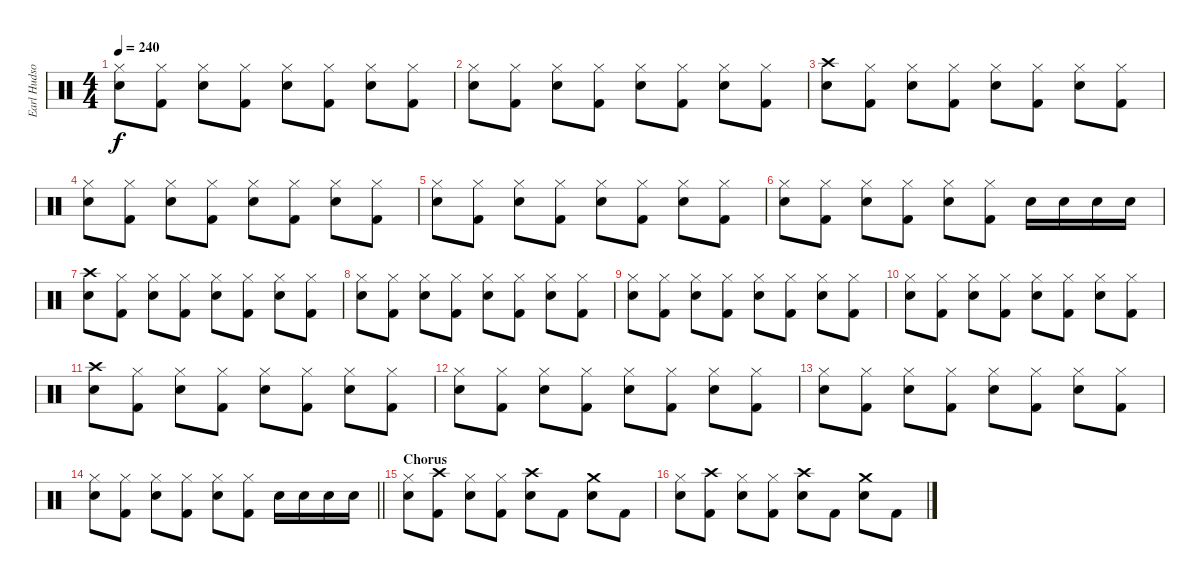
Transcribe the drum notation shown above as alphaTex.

\track ("Earl Hudson" "Earl Hudso") {instrument percussion}
\staff {score}
\articulation defaults
\ts (4 4)
\tempo 240
\clef neutral
\ks c
("Hi-Hat (closed)" "Snare (hit) 2").8{dy f} ("Hi-Hat (closed)" "Kick (hit) 2").8 ("Hi-Hat (closed)" "Snare (hit) 2").8 ("Hi-Hat (closed)" "Kick (hit) 2").8 ("Hi-Hat (closed)" "Snare (hit) 2").8 ("Hi-Hat (closed)" "Kick (hit) 2").8 ("Hi-Hat (closed)" "Snare (hit) 2").8 ("Hi-Hat (closed)" "Kick (hit) 2").8 |
("Hi-Hat (closed)" "Snare (hit) 2").8 ("Hi-Hat (closed)" "Kick (hit) 2").8 ("Hi-Hat (closed)" "Snare (hit) 2").8 ("Hi-Hat (closed)" "Kick (hit) 2").8 ("Hi-Hat (closed)" "Snare (hit) 2").8 ("Hi-Hat (closed)" "Kick (hit) 2").8 ("Hi-Hat (closed)" "Snare (hit) 2").8 ("Hi-Hat (closed)" "Kick (hit) 2").8 |
("Crash high (hit)" "Snare (hit) 2").8 ("Hi-Hat (closed)" "Kick (hit) 2").8 ("Hi-Hat (closed)" "Snare (hit) 2").8 ("Hi-Hat (closed)" "Kick (hit) 2").8 ("Hi-Hat (closed)" "Snare (hit) 2").8 ("Hi-Hat (closed)" "Kick (hit) 2").8 ("Hi-Hat (closed)" "Snare (hit) 2").8 ("Hi-Hat (closed)" "Kick (hit) 2").8 |
("Hi-Hat (closed)" "Snare (hit) 2").8 ("Hi-Hat (closed)" "Kick (hit) 2").8 ("Hi-Hat (closed)" "Snare (hit) 2").8 ("Hi-Hat (closed)" "Kick (hit) 2").8 ("Hi-Hat (closed)" "Snare (hit) 2").8 ("Hi-Hat (closed)" "Kick (hit) 2").8 ("Hi-Hat (closed)" "Snare (hit) 2").8 ("Hi-Hat (closed)" "Kick (hit) 2").8 |
("Hi-Hat (closed)" "Snare (hit) 2").8 ("Hi-Hat (closed)" "Kick (hit) 2").8 ("Hi-Hat (closed)" "Snare (hit) 2").8 ("Hi-Hat (closed)" "Kick (hit) 2").8 ("Hi-Hat (closed)" "Snare (hit) 2").8 ("Hi-Hat (closed)" "Kick (hit) 2").8 ("Hi-Hat (closed)" "Snare (hit) 2").8 ("Hi-Hat (closed)" "Kick (hit) 2").8 |
("Hi-Hat (closed)" "Snare (hit) 2").8 ("Hi-Hat (closed)" "Kick (hit) 2").8 ("Hi-Hat (closed)" "Snare (hit) 2").8 ("Hi-Hat (closed)" "Kick (hit) 2").8 ("Hi-Hat (closed)" "Snare (hit) 2").8 ("Hi-Hat (closed)" "Kick (hit) 2").8 "Snare (hit) 2".16 "Snare (hit) 2".16 "Snare (hit) 2".16 "Snare (hit) 2".16 |
("Crash high (hit)" "Snare (hit) 2").8 ("Hi-Hat (closed)" "Kick (hit) 2").8 ("Hi-Hat (closed)" "Snare (hit) 2").8 ("Hi-Hat (closed)" "Kick (hit) 2").8 ("Hi-Hat (closed)" "Snare (hit) 2").8 ("Hi-Hat (closed)" "Kick (hit) 2").8 ("Hi-Hat (closed)" "Snare (hit) 2").8 ("Hi-Hat (closed)" "Kick (hit) 2").8 |
("Hi-Hat (closed)" "Snare (hit) 2").8 ("Hi-Hat (closed)" "Kick (hit) 2").8 ("Hi-Hat (closed)" "Snare (hit) 2").8 ("Hi-Hat (closed)" "Kick (hit) 2").8 ("Hi-Hat (closed)" "Snare (hit) 2").8 ("Hi-Hat (closed)" "Kick (hit) 2").8 ("Hi-Hat (closed)" "Snare (hit) 2").8 ("Hi-Hat (closed)" "Kick (hit) 2").8 |
("Hi-Hat (closed)" "Snare (hit) 2").8 ("Hi-Hat (closed)" "Kick (hit) 2").8 ("Hi-Hat (closed)" "Snare (hit) 2").8 ("Hi-Hat (closed)" "Kick (hit) 2").8 ("Hi-Hat (closed)" "Snare (hit) 2").8 ("Hi-Hat (closed)" "Kick (hit) 2").8 ("Hi-Hat (closed)" "Snare (hit) 2").8 ("Hi-Hat (closed)" "Kick (hit) 2").8 |
("Hi-Hat (closed)" "Snare (hit) 2").8 ("Hi-Hat (closed)" "Kick (hit) 2").8 ("Hi-Hat (closed)" "Snare (hit) 2").8 ("Hi-Hat (closed)" "Kick (hit) 2").8 ("Hi-Hat (closed)" "Snare (hit) 2").8 ("Hi-Hat (closed)" "Kick (hit) 2").8 ("Hi-Hat (closed)" "Snare (hit) 2").8 ("Hi-Hat (closed)" "Kick (hit) 2").8 |
("Crash high (hit)" "Snare (hit) 2").8 ("Hi-Hat (closed)" "Kick (hit) 2").8 ("Hi-Hat (closed)" "Snare (hit) 2").8 ("Hi-Hat (closed)" "Kick (hit) 2").8 ("Hi-Hat (closed)" "Snare (hit) 2").8 ("Hi-Hat (closed)" "Kick (hit) 2").8 ("Hi-Hat (closed)" "Snare (hit) 2").8 ("Hi-Hat (closed)" "Kick (hit) 2").8 |
("Hi-Hat (closed)" "Snare (hit) 2").8 ("Hi-Hat (closed)" "Kick (hit) 2").8 ("Hi-Hat (closed)" "Snare (hit) 2").8 ("Hi-Hat (closed)" "Kick (hit) 2").8 ("Hi-Hat (closed)" "Snare (hit) 2").8 ("Hi-Hat (closed)" "Kick (hit) 2").8 ("Hi-Hat (closed)" "Snare (hit) 2").8 ("Hi-Hat (closed)" "Kick (hit) 2").8 |
("Hi-Hat (closed)" "Snare (hit) 2").8 ("Hi-Hat (closed)" "Kick (hit) 2").8 ("Hi-Hat (closed)" "Snare (hit) 2").8 ("Hi-Hat (closed)" "Kick (hit) 2").8 ("Hi-Hat (closed)" "Snare (hit) 2").8 ("Hi-Hat (closed)" "Kick (hit) 2").8 ("Hi-Hat (closed)" "Snare (hit) 2").8 ("Hi-Hat (closed)" "Kick (hit) 2").8 |
\barLineRight lightlight
("Hi-Hat (closed)" "Snare (hit) 2").8 ("Hi-Hat (closed)" "Kick (hit) 2").8 ("Hi-Hat (closed)" "Snare (hit) 2").8 ("Hi-Hat (closed)" "Kick (hit) 2").8 ("Hi-Hat (closed)" "Snare (hit) 2").8 ("Hi-Hat (closed)" "Kick (hit) 2").8 "Snare (hit) 2".16 "Snare (hit) 2".16 "Snare (hit) 2".16 "Snare (hit) 2".16 |
\section ("" "Chorus")
("Hi-Hat (closed)" "Snare (hit) 2").8 ("Crash high (hit)" "Kick (hit) 2").8 ("Hi-Hat (closed)" "Snare (hit) 2").8 ("Hi-Hat (closed)" "Kick (hit) 2").8 ("Crash high (hit)" "Snare (hit) 2").8 "Kick (hit) 2".8 ("Crash medium (hit)" "Snare (hit) 2").8 "Kick (hit) 2".8 |
("Hi-Hat (closed)" "Snare (hit) 2").8 ("Crash high (hit)" "Kick (hit) 2").8 ("Hi-Hat (closed)" "Snare (hit) 2").8 ("Hi-Hat (closed)" "Kick (hit) 2").8 ("Crash high (hit)" "Snare (hit) 2").8 "Kick (hit) 2".8 ("Crash medium (hit)" "Snare (hit) 2").8 "Kick (hit) 2".8
